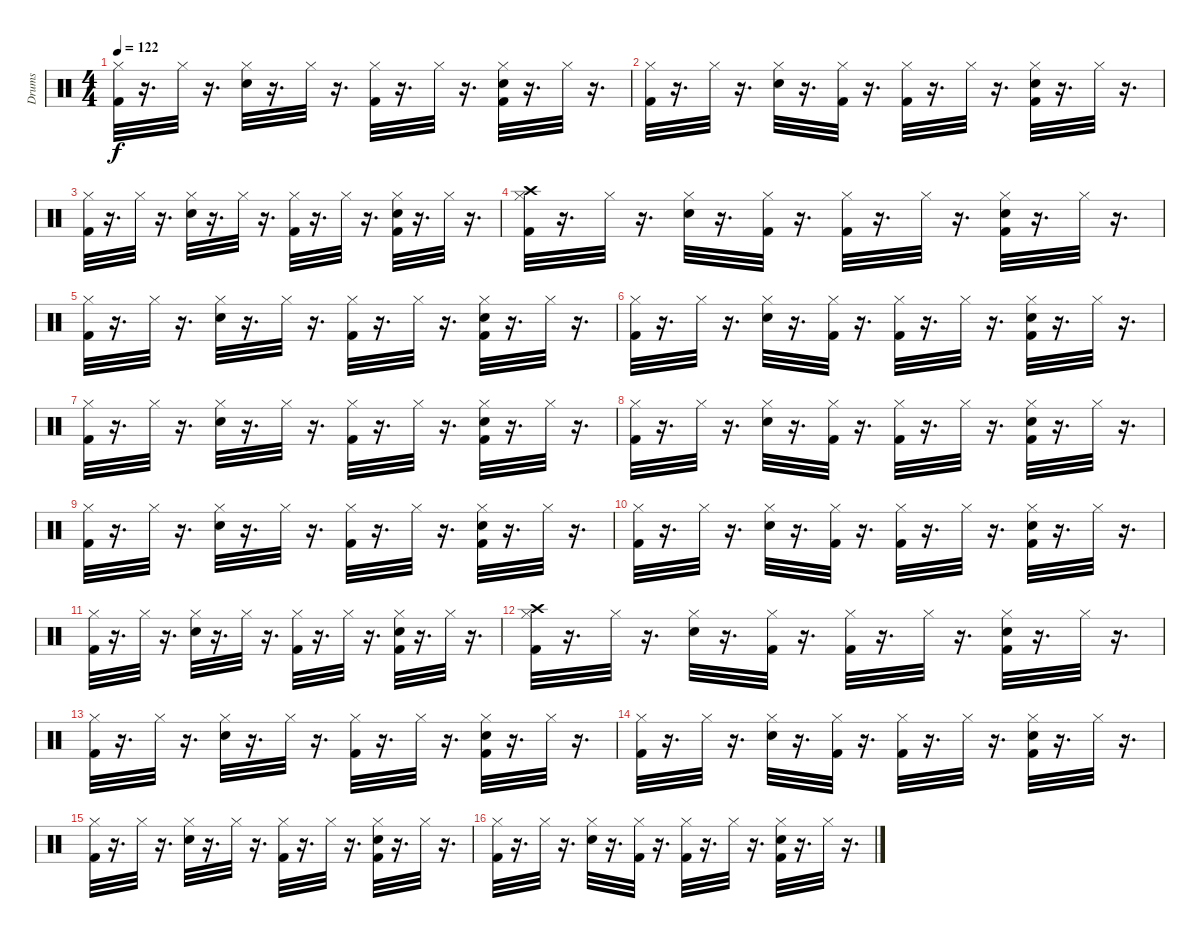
\track ("Drums" "Drums") {instrument percussion}
\staff {score}
\articulation defaults
\ts (4 4)
\tempo 122
\clef neutral
\ks c
("Kick (hit) 2" "Hi-Hat (closed)").32{dy f} r.16{d} "Hi-Hat (closed)".32 r.16{d} ("Snare (hit) 2" "Hi-Hat (closed)").32 r.16{d} "Hi-Hat (closed)".32 r.16{d} ("Kick (hit) 2" "Hi-Hat (closed)").32 r.16{d} "Hi-Hat (closed)".32 r.16{d} ("Kick (hit) 2" "Snare (hit) 2" "Hi-Hat (closed)").32 r.16{d} "Hi-Hat (closed)".32 r.16{d} |
("Kick (hit) 2" "Hi-Hat (closed)").32 r.16{d} "Hi-Hat (closed)".32 r.16{d} ("Snare (hit) 2" "Hi-Hat (closed)").32 r.16{d} ("Kick (hit) 2" "Hi-Hat (closed)").32 r.16{d} ("Kick (hit) 2" "Hi-Hat (closed)").32 r.16{d} "Hi-Hat (closed)".32 r.16{d} ("Kick (hit) 2" "Snare (hit) 2" "Hi-Hat (closed)").32 r.16{d} "Hi-Hat (closed)".32 r.16{d} |
("Kick (hit) 2" "Hi-Hat (closed)").32 r.16{d} "Hi-Hat (closed)".32 r.16{d} ("Snare (hit) 2" "Hi-Hat (closed)").32 r.16{d} "Hi-Hat (closed)".32 r.16{d} ("Kick (hit) 2" "Hi-Hat (closed)").32 r.16{d} "Hi-Hat (closed)".32 r.16{d} ("Kick (hit) 2" "Snare (hit) 2" "Hi-Hat (closed)").32 r.16{d} "Hi-Hat (closed)".32 r.16{d} |
("Kick (hit) 2" "Hi-Hat (closed)" "Crash high (hit)").32 r.16{d} "Hi-Hat (closed)".32 r.16{d} ("Snare (hit) 2" "Hi-Hat (closed)").32 r.16{d} ("Kick (hit) 2" "Hi-Hat (closed)").32 r.16{d} ("Kick (hit) 2" "Hi-Hat (closed)").32 r.16{d} "Hi-Hat (closed)".32 r.16{d} ("Kick (hit) 2" "Snare (hit) 2" "Hi-Hat (closed)").32 r.16{d} "Hi-Hat (closed)".32 r.16{d} |
("Kick (hit) 2" "Hi-Hat (closed)").32 r.16{d} "Hi-Hat (closed)".32 r.16{d} ("Snare (hit) 2" "Hi-Hat (closed)").32 r.16{d} "Hi-Hat (closed)".32 r.16{d} ("Kick (hit) 2" "Hi-Hat (closed)").32 r.16{d} "Hi-Hat (closed)".32 r.16{d} ("Kick (hit) 2" "Snare (hit) 2" "Hi-Hat (closed)").32 r.16{d} "Hi-Hat (closed)".32 r.16{d} |
("Kick (hit) 2" "Hi-Hat (closed)").32 r.16{d} "Hi-Hat (closed)".32 r.16{d} ("Snare (hit) 2" "Hi-Hat (closed)").32 r.16{d} ("Kick (hit) 2" "Hi-Hat (closed)").32 r.16{d} ("Kick (hit) 2" "Hi-Hat (closed)").32 r.16{d} "Hi-Hat (closed)".32 r.16{d} ("Kick (hit) 2" "Snare (hit) 2" "Hi-Hat (closed)").32 r.16{d} "Hi-Hat (closed)".32 r.16{d} |
("Kick (hit) 2" "Hi-Hat (closed)").32 r.16{d} "Hi-Hat (closed)".32 r.16{d} ("Snare (hit) 2" "Hi-Hat (closed)").32 r.16{d} "Hi-Hat (closed)".32 r.16{d} ("Kick (hit) 2" "Hi-Hat (closed)").32 r.16{d} "Hi-Hat (closed)".32 r.16{d} ("Kick (hit) 2" "Snare (hit) 2" "Hi-Hat (closed)").32 r.16{d} "Hi-Hat (closed)".32 r.16{d} |
("Kick (hit) 2" "Hi-Hat (closed)").32 r.16{d} "Hi-Hat (closed)".32 r.16{d} ("Snare (hit) 2" "Hi-Hat (closed)").32 r.16{d} ("Kick (hit) 2" "Hi-Hat (closed)").32 r.16{d} ("Kick (hit) 2" "Hi-Hat (closed)").32 r.16{d} "Hi-Hat (closed)".32 r.16{d} ("Kick (hit) 2" "Snare (hit) 2" "Hi-Hat (closed)").32 r.16{d} "Hi-Hat (closed)".32 r.16{d} |
("Kick (hit) 2" "Hi-Hat (closed)").32 r.16{d} "Hi-Hat (closed)".32 r.16{d} ("Snare (hit) 2" "Hi-Hat (closed)").32 r.16{d} "Hi-Hat (closed)".32 r.16{d} ("Kick (hit) 2" "Hi-Hat (closed)").32 r.16{d} "Hi-Hat (closed)".32 r.16{d} ("Kick (hit) 2" "Snare (hit) 2" "Hi-Hat (closed)").32 r.16{d} "Hi-Hat (closed)".32 r.16{d} |
("Kick (hit) 2" "Hi-Hat (closed)").32 r.16{d} "Hi-Hat (closed)".32 r.16{d} ("Snare (hit) 2" "Hi-Hat (closed)").32 r.16{d} ("Kick (hit) 2" "Hi-Hat (closed)").32 r.16{d} ("Kick (hit) 2" "Hi-Hat (closed)").32 r.16{d} "Hi-Hat (closed)".32 r.16{d} ("Kick (hit) 2" "Snare (hit) 2" "Hi-Hat (closed)").32 r.16{d} "Hi-Hat (closed)".32 r.16{d} |
("Kick (hit) 2" "Hi-Hat (closed)").32 r.16{d} "Hi-Hat (closed)".32 r.16{d} ("Snare (hit) 2" "Hi-Hat (closed)").32 r.16{d} "Hi-Hat (closed)".32 r.16{d} ("Kick (hit) 2" "Hi-Hat (closed)").32 r.16{d} "Hi-Hat (closed)".32 r.16{d} ("Kick (hit) 2" "Snare (hit) 2" "Hi-Hat (closed)").32 r.16{d} "Hi-Hat (closed)".32 r.16{d} |
("Kick (hit) 2" "Hi-Hat (closed)" "Crash high (hit)").32 r.16{d} "Hi-Hat (closed)".32 r.16{d} ("Snare (hit) 2" "Hi-Hat (closed)").32 r.16{d} ("Kick (hit) 2" "Hi-Hat (closed)").32 r.16{d} ("Kick (hit) 2" "Hi-Hat (closed)").32 r.16{d} "Hi-Hat (closed)".32 r.16{d} ("Kick (hit) 2" "Snare (hit) 2" "Hi-Hat (closed)").32 r.16{d} "Hi-Hat (closed)".32 r.16{d} |
("Kick (hit) 2" "Hi-Hat (closed)").32 r.16{d} "Hi-Hat (closed)".32 r.16{d} ("Snare (hit) 2" "Hi-Hat (closed)").32 r.16{d} "Hi-Hat (closed)".32 r.16{d} ("Kick (hit) 2" "Hi-Hat (closed)").32 r.16{d} "Hi-Hat (closed)".32 r.16{d} ("Kick (hit) 2" "Snare (hit) 2" "Hi-Hat (closed)").32 r.16{d} "Hi-Hat (closed)".32 r.16{d} |
("Kick (hit) 2" "Hi-Hat (closed)").32 r.16{d} "Hi-Hat (closed)".32 r.16{d} ("Snare (hit) 2" "Hi-Hat (closed)").32 r.16{d} ("Kick (hit) 2" "Hi-Hat (closed)").32 r.16{d} ("Kick (hit) 2" "Hi-Hat (closed)").32 r.16{d} "Hi-Hat (closed)".32 r.16{d} ("Kick (hit) 2" "Snare (hit) 2" "Hi-Hat (closed)").32 r.16{d} "Hi-Hat (closed)".32 r.16{d} |
("Kick (hit) 2" "Hi-Hat (closed)").32 r.16{d} "Hi-Hat (closed)".32 r.16{d} ("Snare (hit) 2" "Hi-Hat (closed)").32 r.16{d} "Hi-Hat (closed)".32 r.16{d} ("Kick (hit) 2" "Hi-Hat (closed)").32 r.16{d} "Hi-Hat (closed)".32 r.16{d} ("Kick (hit) 2" "Snare (hit) 2" "Hi-Hat (closed)").32 r.16{d} "Hi-Hat (closed)".32 r.16{d} |
("Kick (hit) 2" "Hi-Hat (closed)").32 r.16{d} "Hi-Hat (closed)".32 r.16{d} ("Snare (hit) 2" "Hi-Hat (closed)").32 r.16{d} ("Kick (hit) 2" "Hi-Hat (closed)").32 r.16{d} ("Kick (hit) 2" "Hi-Hat (closed)").32 r.16{d} "Hi-Hat (closed)".32 r.16{d} ("Kick (hit) 2" "Snare (hit) 2" "Hi-Hat (closed)").32 r.16{d} "Hi-Hat (closed)".32 r.16{d}
